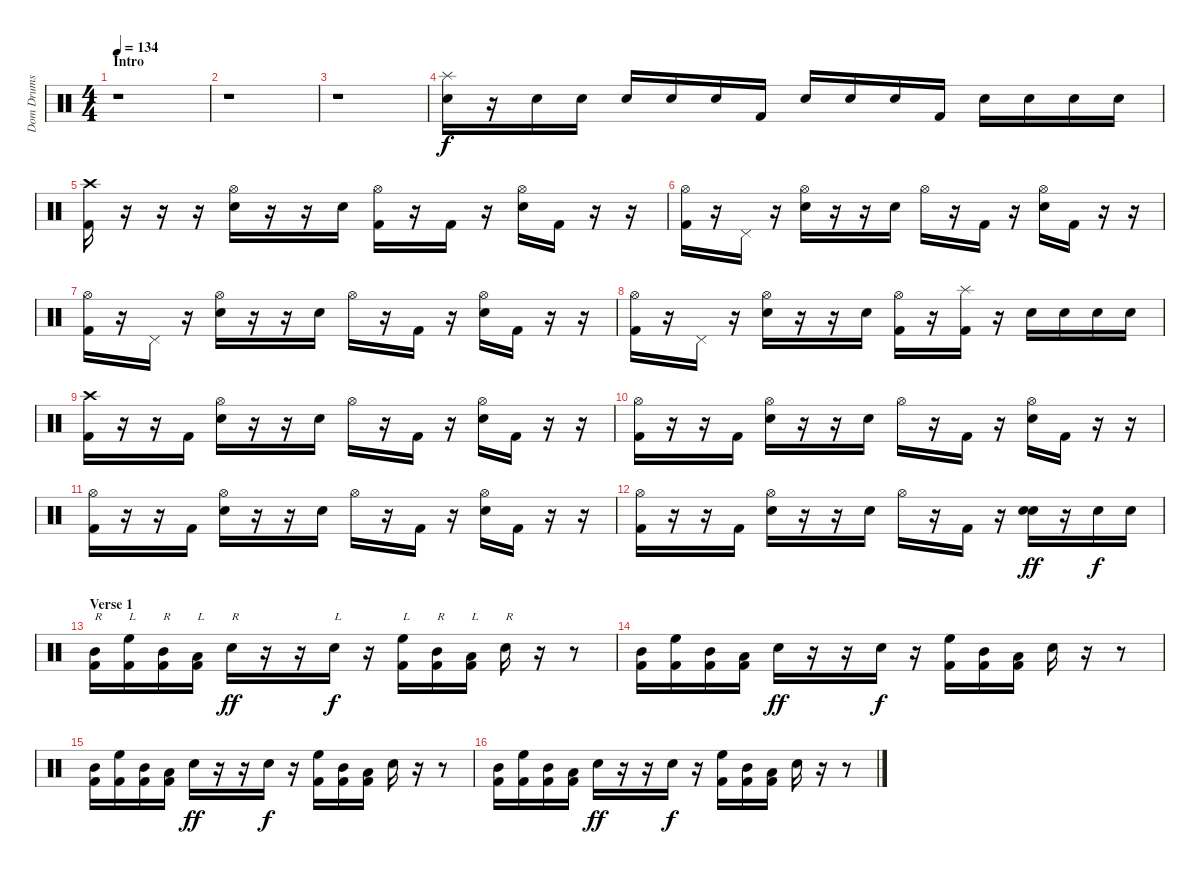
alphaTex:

\track ("Dom Drums" "Dom Drums") {instrument percussion}
\staff {score}
\articulation defaults
\ts (4 4)
\section ("" "Intro")
\tempo 134
\clef neutral
\ks c
r.1{dy f} |
r.1 |
r.1 |
("Splash (hit)" "Electric Snare (hit)").16 r.16 "Electric Snare (hit)".16 "Electric Snare (hit)".16 "Electric Snare (hit)".16 "Electric Snare (hit)".16 "Electric Snare (hit)".16 "Kick (hit) 2".16 "Electric Snare (hit)".16 "Electric Snare (hit)".16 "Electric Snare (hit)".16 "Kick (hit) 2".16 "Electric Snare (hit)".16 "Electric Snare (hit)".16 "Electric Snare (hit)".16 "Electric Snare (hit)".16 |
("Crash high (hit)" "Kick (hit) 2").16 r.16 r.16 r.16 ("Hi-Hat (open)" "Electric Snare (hit)").16 r.16 r.16 "Electric Snare (hit)".16 ("Hi-Hat (open)" "Kick (hit) 2").16 r.16 "Kick (hit) 2".16 r.16 ("Hi-Hat (open)" "Electric Snare (hit)").16 "Kick (hit) 2".16 r.16 r.16 |
("Hi-Hat (open)" "Kick (hit) 2").16 r.16 "Pedal Hi-Hat (hit)".16 r.16 ("Hi-Hat (open)" "Electric Snare (hit)").16 r.16 r.16 "Electric Snare (hit)".16 "Hi-Hat (open)".16 r.16 "Kick (hit) 2".16 r.16 ("Hi-Hat (open)" "Electric Snare (hit)").16 "Kick (hit) 2".16 r.16 r.16 |
("Hi-Hat (open)" "Kick (hit) 2").16 r.16 "Pedal Hi-Hat (hit)".16 r.16 ("Hi-Hat (open)" "Electric Snare (hit)").16 r.16 r.16 "Electric Snare (hit)".16 "Hi-Hat (open)".16 r.16 "Kick (hit) 2".16 r.16 ("Hi-Hat (open)" "Electric Snare (hit)").16 "Kick (hit) 2".16 r.16 r.16 |
("Hi-Hat (open)" "Kick (hit) 2").16 r.16 "Pedal Hi-Hat (hit)".16 r.16 ("Hi-Hat (open)" "Electric Snare (hit)").16 r.16 r.16 "Electric Snare (hit)".16 ("Hi-Hat (open)" "Kick (hit) 2").16 r.16 ("Splash (hit)" "Kick (hit) 2").16 r.16 "Electric Snare (hit)".16 "Electric Snare (hit)".16 "Electric Snare (hit)".16 "Electric Snare (hit)".16 |
("Crash high (hit)" "Kick (hit) 2").16 r.16 r.16 "Kick (hit) 2".16 ("Hi-Hat (open)" "Electric Snare (hit)").16 r.16 r.16 "Electric Snare (hit)".16 "Hi-Hat (open)".16 r.16 "Kick (hit) 2".16 r.16 ("Hi-Hat (open)" "Electric Snare (hit)").16 "Kick (hit) 2".16 r.16 r.16 |
("Hi-Hat (open)" "Kick (hit) 2").16 r.16 r.16 "Kick (hit) 2".16 ("Hi-Hat (open)" "Electric Snare (hit)").16 r.16 r.16 "Electric Snare (hit)".16 "Hi-Hat (open)".16 r.16 "Kick (hit) 2".16 r.16 ("Hi-Hat (open)" "Electric Snare (hit)").16 "Kick (hit) 2".16 r.16 r.16 |
("Hi-Hat (open)" "Kick (hit) 2").16 r.16 r.16 "Kick (hit) 2".16 ("Hi-Hat (open)" "Electric Snare (hit)").16 r.16 r.16 "Electric Snare (hit)".16 "Hi-Hat (open)".16 r.16 "Kick (hit) 2".16 r.16 ("Hi-Hat (open)" "Electric Snare (hit)").16 "Kick (hit) 2".16 r.16 r.16 |
("Hi-Hat (open)" "Kick (hit) 2").16 r.16 r.16 "Kick (hit) 2".16 ("Hi-Hat (open)" "Electric Snare (hit)").16 r.16 r.16 "Electric Snare (hit)".16 "Hi-Hat (open)".16 r.16 "Kick (hit) 2".16 r.16 ("Electric Snare (hit)" "Electric Snare (hit)").16{dy ff} r.16 "Electric Snare (hit)".16{dy f} "Electric Snare (hit)".16 |
\section ("" "Verse 1")
("Mid Tom (hit)" "Kick (hit) 2").16{txt "R"} ("High Floor Tom (hit)" "Kick (hit) 2").16{txt "L"} ("Mid Tom (hit)" "Kick (hit) 2").16{txt "R"} ("Low Tom (hit)" "Kick (hit) 2").16{txt "L"} "Electric Snare (hit)".16{txt "R" dy ff} r.16 r.16 "Electric Snare (hit)".16{txt "L" dy f} r.16 ("High Floor Tom (hit)" "Kick (hit) 2").16{txt "L"} ("Mid Tom (hit)" "Kick (hit) 2").16{txt "R"} ("Low Tom (hit)" "Kick (hit) 2").16{txt "L"} "Electric Snare (hit)".16{txt "R"} r.16 r.8 |
("Mid Tom (hit)" "Kick (hit) 2").16 ("High Floor Tom (hit)" "Kick (hit) 2").16 ("Mid Tom (hit)" "Kick (hit) 2").16 ("Low Tom (hit)" "Kick (hit) 2").16 "Electric Snare (hit)".16{dy ff} r.16 r.16 "Electric Snare (hit)".16{dy f} r.16 ("High Floor Tom (hit)" "Kick (hit) 2").16 ("Mid Tom (hit)" "Kick (hit) 2").16 ("Low Tom (hit)" "Kick (hit) 2").16 "Electric Snare (hit)".16 r.16 r.8 |
("Mid Tom (hit)" "Kick (hit) 2").16 ("High Floor Tom (hit)" "Kick (hit) 2").16 ("Mid Tom (hit)" "Kick (hit) 2").16 ("Low Tom (hit)" "Kick (hit) 2").16 "Electric Snare (hit)".16{dy ff} r.16 r.16 "Electric Snare (hit)".16{dy f} r.16 ("High Floor Tom (hit)" "Kick (hit) 2").16 ("Mid Tom (hit)" "Kick (hit) 2").16 ("Low Tom (hit)" "Kick (hit) 2").16 "Electric Snare (hit)".16 r.16 r.8 |
("Mid Tom (hit)" "Kick (hit) 2").16 ("High Floor Tom (hit)" "Kick (hit) 2").16 ("Mid Tom (hit)" "Kick (hit) 2").16 ("Low Tom (hit)" "Kick (hit) 2").16 "Electric Snare (hit)".16{dy ff} r.16 r.16 "Electric Snare (hit)".16{dy f} r.16 ("High Floor Tom (hit)" "Kick (hit) 2").16 ("Mid Tom (hit)" "Kick (hit) 2").16 ("Low Tom (hit)" "Kick (hit) 2").16 "Electric Snare (hit)".16 r.16 r.8
